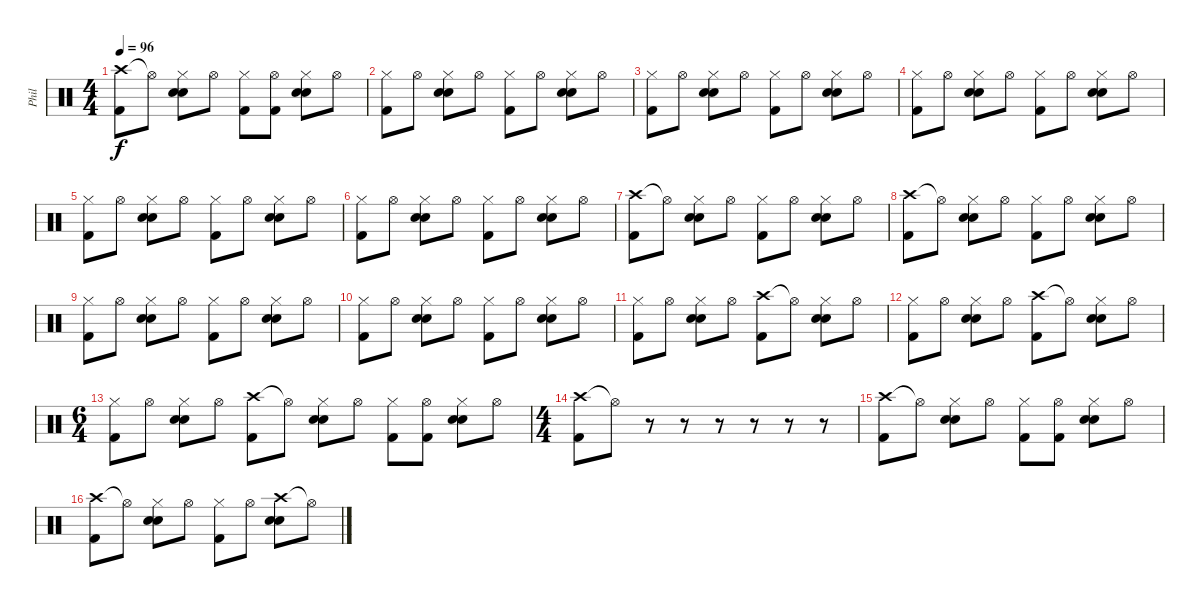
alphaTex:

\track ("Phil" "Phil") {instrument percussion}
\staff {score}
\articulation defaults
\ts (4 4)
\tempo 96
\clef neutral
\ks c
("Crash high (hit)" "Kick (hit) 2").8{dy f} "Hi-Hat (open)"{t}.8 ("Hi-Hat (closed)" "Snare (hit) 2" "Electric Snare (hit)").8 "Hi-Hat (open)".8 ("Hi-Hat (closed)" "Kick (hit) 2").8 ("Hi-Hat (open)" "Kick (hit) 2").8 ("Hi-Hat (closed)" "Snare (hit) 2" "Electric Snare (hit)").8 "Hi-Hat (open)".8 |
("Hi-Hat (closed)" "Kick (hit) 2").8 "Hi-Hat (open)".8 ("Hi-Hat (closed)" "Snare (hit) 2" "Electric Snare (hit)").8 "Hi-Hat (open)".8 ("Hi-Hat (closed)" "Kick (hit) 2").8 "Hi-Hat (open)".8 ("Hi-Hat (closed)" "Snare (hit) 2" "Electric Snare (hit)").8 "Hi-Hat (open)".8 |
("Hi-Hat (closed)" "Kick (hit) 2").8 "Hi-Hat (open)".8 ("Hi-Hat (closed)" "Snare (hit) 2" "Electric Snare (hit)").8 "Hi-Hat (open)".8 ("Hi-Hat (closed)" "Kick (hit) 2").8 "Hi-Hat (open)".8 ("Hi-Hat (closed)" "Snare (hit) 2" "Electric Snare (hit)").8 "Hi-Hat (open)".8 |
("Hi-Hat (closed)" "Kick (hit) 2").8 "Hi-Hat (open)".8 ("Hi-Hat (closed)" "Snare (hit) 2" "Electric Snare (hit)").8 "Hi-Hat (open)".8 ("Hi-Hat (closed)" "Kick (hit) 2").8 "Hi-Hat (open)".8 ("Hi-Hat (closed)" "Snare (hit) 2" "Electric Snare (hit)").8 "Hi-Hat (open)".8 |
("Hi-Hat (closed)" "Kick (hit) 2").8 "Hi-Hat (open)".8 ("Hi-Hat (closed)" "Snare (hit) 2" "Electric Snare (hit)").8 "Hi-Hat (open)".8 ("Hi-Hat (closed)" "Kick (hit) 2").8 "Hi-Hat (open)".8 ("Hi-Hat (closed)" "Snare (hit) 2" "Electric Snare (hit)").8 "Hi-Hat (open)".8 |
("Hi-Hat (closed)" "Kick (hit) 2").8 "Hi-Hat (open)".8 ("Hi-Hat (closed)" "Snare (hit) 2" "Electric Snare (hit)").8 "Hi-Hat (open)".8 ("Hi-Hat (closed)" "Kick (hit) 2").8 "Hi-Hat (open)".8 ("Hi-Hat (closed)" "Snare (hit) 2" "Electric Snare (hit)").8 "Hi-Hat (open)".8 |
("Crash high (hit)" "Kick (hit) 2").8 "Hi-Hat (open)"{t}.8 ("Hi-Hat (closed)" "Snare (hit) 2" "Electric Snare (hit)").8 "Hi-Hat (open)".8 ("Hi-Hat (closed)" "Kick (hit) 2").8 "Hi-Hat (open)".8 ("Hi-Hat (closed)" "Snare (hit) 2" "Electric Snare (hit)").8 "Hi-Hat (open)".8 |
("Crash high (hit)" "Kick (hit) 2").8 "Hi-Hat (open)"{t}.8 ("Hi-Hat (closed)" "Snare (hit) 2" "Electric Snare (hit)").8 "Hi-Hat (open)".8 ("Hi-Hat (closed)" "Kick (hit) 2").8 "Hi-Hat (open)".8 ("Hi-Hat (closed)" "Snare (hit) 2" "Electric Snare (hit)").8 "Hi-Hat (open)".8 |
("Hi-Hat (closed)" "Kick (hit) 2").8 "Hi-Hat (open)".8 ("Hi-Hat (closed)" "Snare (hit) 2" "Electric Snare (hit)").8 "Hi-Hat (open)".8 ("Hi-Hat (closed)" "Kick (hit) 2").8 "Hi-Hat (open)".8 ("Hi-Hat (closed)" "Snare (hit) 2" "Electric Snare (hit)").8 "Hi-Hat (open)".8 |
("Hi-Hat (closed)" "Kick (hit) 2").8 "Hi-Hat (open)".8 ("Hi-Hat (closed)" "Snare (hit) 2" "Electric Snare (hit)").8 "Hi-Hat (open)".8 ("Hi-Hat (closed)" "Kick (hit) 2").8 "Hi-Hat (open)".8 ("Hi-Hat (closed)" "Snare (hit) 2" "Electric Snare (hit)").8 "Hi-Hat (open)".8 |
("Hi-Hat (closed)" "Kick (hit) 2").8 "Hi-Hat (open)".8 ("Hi-Hat (closed)" "Snare (hit) 2" "Electric Snare (hit)").8 "Hi-Hat (open)".8 ("Crash high (hit)" "Kick (hit) 2").8 "Hi-Hat (open)"{t}.8 ("Hi-Hat (closed)" "Snare (hit) 2" "Electric Snare (hit)").8 "Hi-Hat (open)".8 |
("Hi-Hat (closed)" "Kick (hit) 2").8 "Hi-Hat (open)".8 ("Hi-Hat (closed)" "Snare (hit) 2" "Electric Snare (hit)").8 "Hi-Hat (open)".8 ("Crash high (hit)" "Kick (hit) 2").8 "Hi-Hat (open)"{t}.8 ("Hi-Hat (closed)" "Snare (hit) 2" "Electric Snare (hit)").8 "Hi-Hat (open)".8 |
\ts (6 4)
("Hi-Hat (closed)" "Kick (hit) 2").8 "Hi-Hat (open)".8 ("Hi-Hat (closed)" "Snare (hit) 2" "Electric Snare (hit)").8 "Hi-Hat (open)".8 ("Crash high (hit)" "Kick (hit) 2").8 "Hi-Hat (open)"{t}.8 ("Hi-Hat (closed)" "Snare (hit) 2" "Electric Snare (hit)").8 "Hi-Hat (open)".8 ("Hi-Hat (closed)" "Kick (hit) 2").8 ("Hi-Hat (open)" "Kick (hit) 2").8 ("Hi-Hat (closed)" "Snare (hit) 2" "Electric Snare (hit)").8 "Hi-Hat (open)".8 |
\ts (4 4)
("Crash high (hit)" "Kick (hit) 2").8 "Hi-Hat (open)"{t}.8 r.8 r.8 r.8 r.8 r.8 r.8 |
("Crash high (hit)" "Kick (hit) 2").8 "Hi-Hat (open)"{t}.8 ("Hi-Hat (closed)" "Snare (hit) 2" "Electric Snare (hit)").8 "Hi-Hat (open)".8 ("Hi-Hat (closed)" "Kick (hit) 2").8 ("Hi-Hat (open)" "Kick (hit) 2").8 ("Hi-Hat (closed)" "Snare (hit) 2" "Electric Snare (hit)").8 "Hi-Hat (open)".8 |
("Crash high (hit)" "Kick (hit) 2").8 "Hi-Hat (open)"{t}.8 ("Hi-Hat (closed)" "Snare (hit) 2" "Electric Snare (hit)").8 "Hi-Hat (open)".8 ("Hi-Hat (closed)" "Kick (hit) 2").8 "Hi-Hat (open)".8 ("Crash high (hit)" "Snare (hit) 2" "Electric Snare (hit)").8 "Hi-Hat (open)"{t}.8
